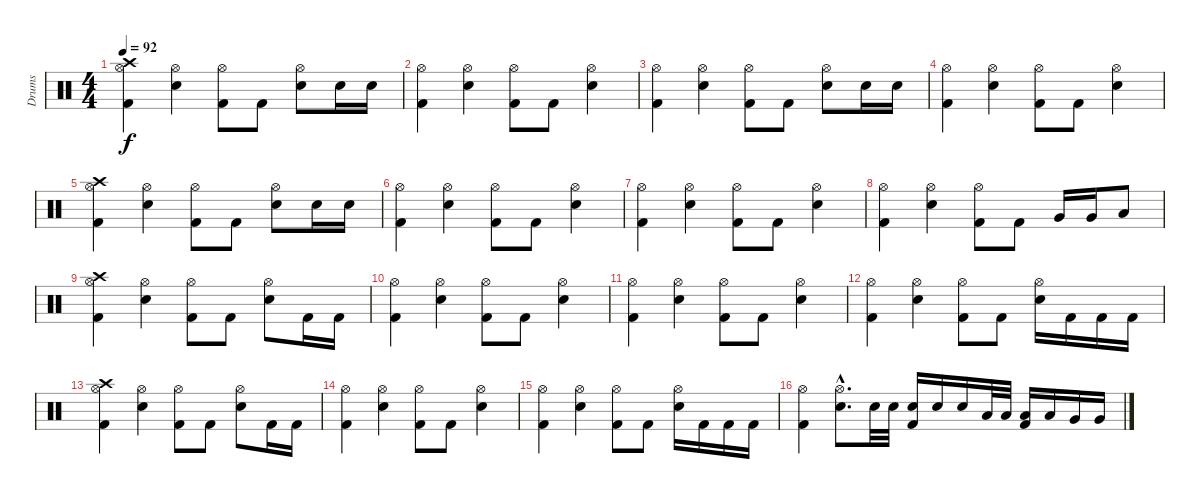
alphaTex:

\track ("Drums" "Drums") {instrument percussion}
\staff {score}
\articulation defaults
\ts (4 4)
\tempo 92
\clef neutral
\ks c
("Kick (hit) 2" "Hi-Hat (open)" "Crash high (hit)").4{dy f} ("Electric Snare (hit)" "Hi-Hat (open)").4 ("Kick (hit) 2" "Hi-Hat (open)").8 "Kick (hit) 2".8 ("Electric Snare (hit)" "Hi-Hat (open)").8 "Electric Snare (hit)".16 "Electric Snare (hit)".16 |
("Kick (hit) 2" "Hi-Hat (open)").4 ("Electric Snare (hit)" "Hi-Hat (open)").4 ("Kick (hit) 2" "Hi-Hat (open)").8 "Kick (hit) 2".8 ("Electric Snare (hit)" "Hi-Hat (open)").4 |
("Kick (hit) 2" "Hi-Hat (open)").4 ("Electric Snare (hit)" "Hi-Hat (open)").4 ("Kick (hit) 2" "Hi-Hat (open)").8 "Kick (hit) 2".8 ("Electric Snare (hit)" "Hi-Hat (open)").8 "Electric Snare (hit)".16 "Electric Snare (hit)".16 |
("Kick (hit) 2" "Hi-Hat (open)").4 ("Electric Snare (hit)" "Hi-Hat (open)").4 ("Kick (hit) 2" "Hi-Hat (open)").8 "Kick (hit) 2".8 ("Electric Snare (hit)" "Hi-Hat (open)").4 |
("Kick (hit) 2" "Hi-Hat (open)" "Crash high (hit)").4 ("Electric Snare (hit)" "Hi-Hat (open)").4 ("Kick (hit) 2" "Hi-Hat (open)").8 "Kick (hit) 2".8 ("Electric Snare (hit)" "Hi-Hat (open)").8 "Electric Snare (hit)".16 "Electric Snare (hit)".16 |
("Kick (hit) 2" "Hi-Hat (open)").4 ("Electric Snare (hit)" "Hi-Hat (open)").4 ("Kick (hit) 2" "Hi-Hat (open)").8 "Kick (hit) 2".8 ("Electric Snare (hit)" "Hi-Hat (open)").4 |
("Kick (hit) 2" "Hi-Hat (open)").4 ("Electric Snare (hit)" "Hi-Hat (open)").4 ("Kick (hit) 2" "Hi-Hat (open)").8 "Kick (hit) 2".8 ("Electric Snare (hit)" "Hi-Hat (open)").4 |
("Kick (hit) 2" "Hi-Hat (open)").4 ("Electric Snare (hit)" "Hi-Hat (open)").4 ("Kick (hit) 2" "Hi-Hat (open)").8 "Kick (hit) 2".8 "Very Low Tom (hit)".16 "Very Low Tom (hit)".16 "Low Tom (hit)".8 |
("Kick (hit) 2" "Hi-Hat (open)" "Crash high (hit)").4 ("Electric Snare (hit)" "Hi-Hat (open)").4 ("Kick (hit) 2" "Hi-Hat (open)").8 "Kick (hit) 2".8 ("Electric Snare (hit)" "Hi-Hat (open)").8 "Kick (hit) 2".16 "Kick (hit) 2".16 |
("Kick (hit) 2" "Hi-Hat (open)").4 ("Electric Snare (hit)" "Hi-Hat (open)").4 ("Kick (hit) 2" "Hi-Hat (open)").8 "Kick (hit) 2".8 ("Electric Snare (hit)" "Hi-Hat (open)").4 |
("Kick (hit) 2" "Hi-Hat (open)").4 ("Electric Snare (hit)" "Hi-Hat (open)").4 ("Kick (hit) 2" "Hi-Hat (open)").8 "Kick (hit) 2".8 ("Electric Snare (hit)" "Hi-Hat (open)").4 |
("Kick (hit) 2" "Hi-Hat (open)").4 ("Electric Snare (hit)" "Hi-Hat (open)").4 ("Kick (hit) 2" "Hi-Hat (open)").8 "Kick (hit) 2".8 ("Electric Snare (hit)" "Hi-Hat (open)").16 "Kick (hit) 2".16 "Kick (hit) 2".16 "Kick (hit) 2".16 |
("Kick (hit) 2" "Hi-Hat (open)" "Crash high (hit)").4 ("Electric Snare (hit)" "Hi-Hat (open)").4 ("Kick (hit) 2" "Hi-Hat (open)").8 "Kick (hit) 2".8 ("Electric Snare (hit)" "Hi-Hat (open)").8 "Kick (hit) 2".16 "Kick (hit) 2".16 |
("Kick (hit) 2" "Hi-Hat (open)").4 ("Electric Snare (hit)" "Hi-Hat (open)").4 ("Kick (hit) 2" "Hi-Hat (open)").8 "Kick (hit) 2".8 ("Electric Snare (hit)" "Hi-Hat (open)").4 |
("Kick (hit) 2" "Hi-Hat (open)").4 ("Electric Snare (hit)" "Hi-Hat (open)").4 ("Kick (hit) 2" "Hi-Hat (open)").8 "Kick (hit) 2".8 ("Electric Snare (hit)" "Hi-Hat (open)").16 "Kick (hit) 2".16 "Kick (hit) 2".16 "Kick (hit) 2".16 |
("Kick (hit) 2" "Hi-Hat (open)").4 ("Electric Snare (hit)"{hac} "Hi-Hat (open)"{hac}).8{d} "Electric Snare (hit)".32 "Electric Snare (hit)".32 ("Kick (hit) 2" "Electric Snare (hit)").16 "Electric Snare (hit)".16 "Electric Snare (hit)".16 "Low Tom (hit)".32 "Low Tom (hit)".32 ("Kick (hit) 2" "Low Tom (hit)").16 "Low Tom (hit)".16 "Very Low Tom (hit)".16 "Very Low Tom (hit)".16
